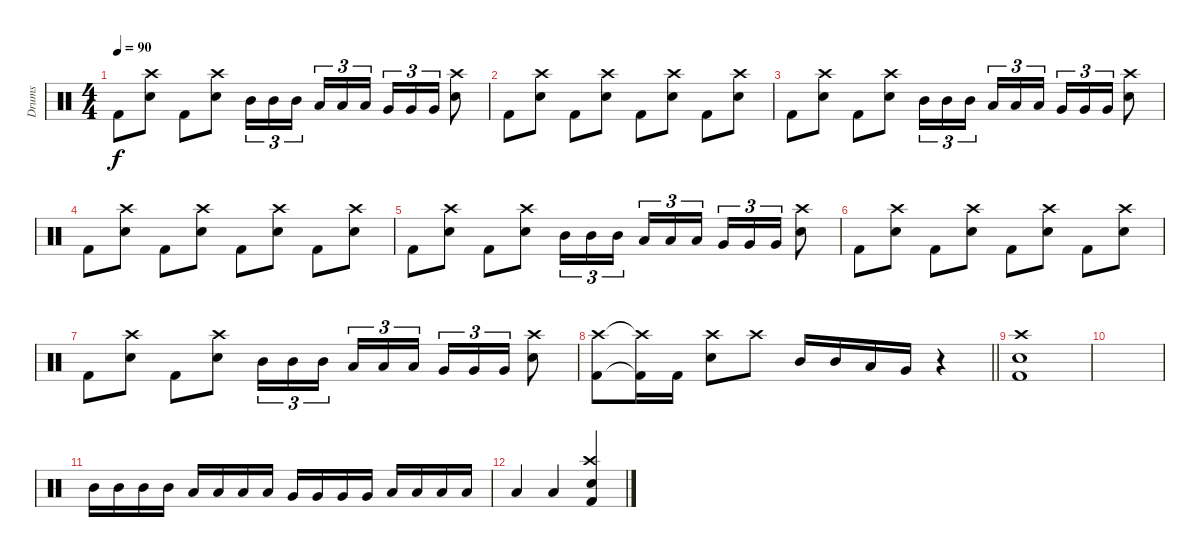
\track ("Drums" "Drums") {instrument percussion}
\staff {score}
\articulation defaults
\ts (4 4)
\tempo 90
\clef neutral
\ks c "Kick (hit) 2".8{dy f}
("Crash high (hit)" "Snare (hit) 2").8 "Kick (hit) 2".8 ("Crash high (hit)" "Snare (hit) 2").8 "Mid Tom (hit)".16{tu (3 2)} "Mid Tom (hit)".16{tu (3 2)} "Mid Tom (hit)".16{tu (3 2) beam splitsecondary} "Low Tom (hit)".16{tu (3 2)} "Low Tom (hit)".16{tu (3 2)} "Low Tom (hit)".16{tu (3 2)} "Very Low Tom (hit)".16{tu (3 2)} "Very Low Tom (hit)".16{tu (3 2)} "Very Low Tom (hit)".16{tu (3 2)} ("Crash high (hit)" "Snare (hit) 2").8 |
"Kick (hit) 2".8 ("Crash high (hit)" "Snare (hit) 2").8 "Kick (hit) 2".8 ("Crash high (hit)" "Snare (hit) 2").8 "Kick (hit) 2".8 ("Crash high (hit)" "Snare (hit) 2").8 "Kick (hit) 2".8 ("Crash high (hit)" "Snare (hit) 2").8 |
"Kick (hit) 2".8 ("Crash high (hit)" "Snare (hit) 2").8 "Kick (hit) 2".8 ("Crash high (hit)" "Snare (hit) 2").8 "Mid Tom (hit)".16{tu (3 2)} "Mid Tom (hit)".16{tu (3 2)} "Mid Tom (hit)".16{tu (3 2) beam splitsecondary} "Low Tom (hit)".16{tu (3 2)} "Low Tom (hit)".16{tu (3 2)} "Low Tom (hit)".16{tu (3 2)} "Very Low Tom (hit)".16{tu (3 2)} "Very Low Tom (hit)".16{tu (3 2)} "Very Low Tom (hit)".16{tu (3 2)} ("Crash high (hit)" "Snare (hit) 2").8 |
"Kick (hit) 2".8 ("Crash high (hit)" "Snare (hit) 2").8 "Kick (hit) 2".8 ("Crash high (hit)" "Snare (hit) 2").8 "Kick (hit) 2".8 ("Crash high (hit)" "Snare (hit) 2").8 "Kick (hit) 2".8 ("Crash high (hit)" "Snare (hit) 2").8 |
"Kick (hit) 2".8 ("Crash high (hit)" "Snare (hit) 2").8 "Kick (hit) 2".8 ("Crash high (hit)" "Snare (hit) 2").8 "Mid Tom (hit)".16{tu (3 2)} "Mid Tom (hit)".16{tu (3 2)} "Mid Tom (hit)".16{tu (3 2) beam splitsecondary} "Low Tom (hit)".16{tu (3 2)} "Low Tom (hit)".16{tu (3 2)} "Low Tom (hit)".16{tu (3 2)} "Very Low Tom (hit)".16{tu (3 2)} "Very Low Tom (hit)".16{tu (3 2)} "Very Low Tom (hit)".16{tu (3 2)} ("Crash high (hit)" "Snare (hit) 2").8 |
"Kick (hit) 2".8 ("Crash high (hit)" "Snare (hit) 2").8 "Kick (hit) 2".8 ("Crash high (hit)" "Snare (hit) 2").8 "Kick (hit) 2".8 ("Crash high (hit)" "Snare (hit) 2").8 "Kick (hit) 2".8 ("Crash high (hit)" "Snare (hit) 2").8 |
"Kick (hit) 2".8 ("Crash high (hit)" "Snare (hit) 2").8 "Kick (hit) 2".8 ("Crash high (hit)" "Snare (hit) 2").8 "Mid Tom (hit)".16{tu (3 2)} "Mid Tom (hit)".16{tu (3 2)} "Mid Tom (hit)".16{tu (3 2) beam splitsecondary} "Low Tom (hit)".16{tu (3 2)} "Low Tom (hit)".16{tu (3 2)} "Low Tom (hit)".16{tu (3 2)} "Very Low Tom (hit)".16{tu (3 2)} "Very Low Tom (hit)".16{tu (3 2)} "Very Low Tom (hit)".16{tu (3 2)} ("Crash high (hit)" "Snare (hit) 2").8 |
\barLineRight lightlight
("Crash high (hit)" "Kick (hit) 2").8 ("Crash high (hit)"{t} "Kick (hit) 2"{t}).16 "Kick (hit) 2".16 ("Crash high (hit)" "Snare (hit) 2").8 "Crash high (hit)".8 "Mid Tom (hit)".16 "Mid Tom (hit)".16 "Low Tom (hit)".16 "Very Low Tom (hit)".16 r.4 |
("Crash high (hit)" "Snare (hit) 2" "Kick (hit) 2").1 |
|
"Mid Tom (hit)".16 "Mid Tom (hit)".16 "Mid Tom (hit)".16 "Mid Tom (hit)".16 "Low Tom (hit)".16 "Low Tom (hit)".16 "Low Tom (hit)".16 "Low Tom (hit)".16 "Very Low Tom (hit)".16 "Very Low Tom (hit)".16 "Very Low Tom (hit)".16 "Very Low Tom (hit)".16 "Low Floor Tom (hit)".16 "Low Floor Tom (hit)".16 "Low Floor Tom (hit)".16 "Low Floor Tom (hit)".16 |
"Low Floor Tom (hit)".4 "Low Floor Tom (hit)".4 ("Crash high (hit)" "Snare (hit) 2" "Kick (hit) 2").4
